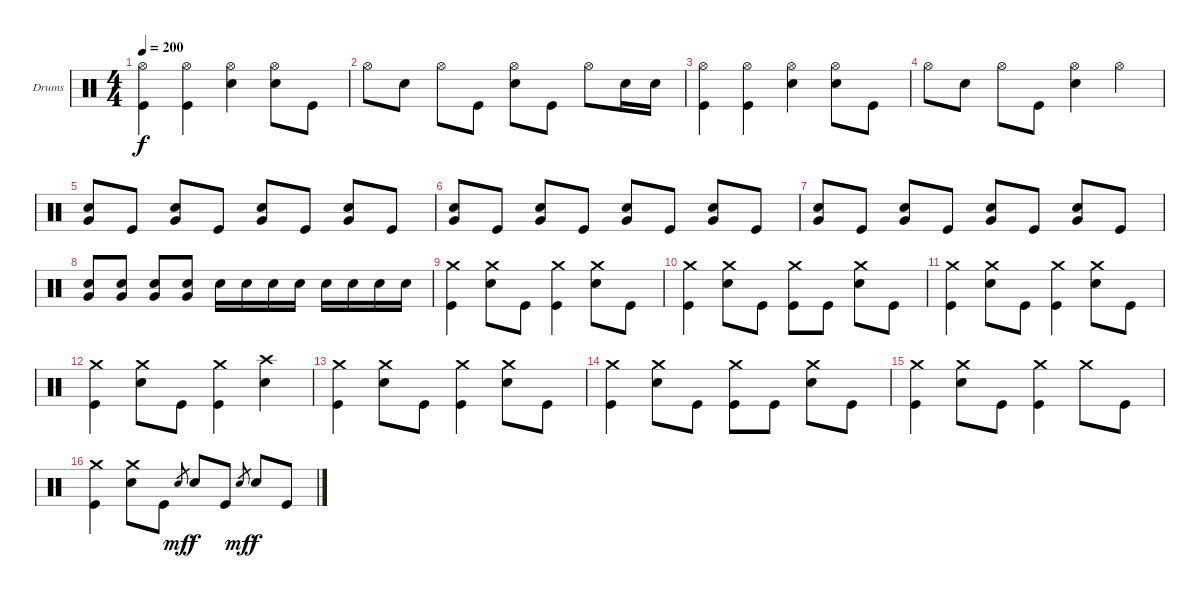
\bracketExtendMode groupsimilarinstruments
\firstSystemTrackNameOrientation horizontal
\otherSystemsTrackNameOrientation horizontal
\track ("Drumkit" "Drums") {instrument percussion}
\staff {score}
\articulation defaults
\ts (4 4)
\tempo 200
\clef neutral
\ks c
("Hi-Hat (open)" "Kick (hit)").4{dy f} ("Hi-Hat (open)" "Kick (hit)").4 ("Hi-Hat (open)" "Snare (hit) 2").4 ("Hi-Hat (open)" "Snare (hit) 2").8 "Kick (hit)".8 |
"Hi-Hat (open)".8 "Snare (hit) 2".8 "Hi-Hat (open)".8 "Kick (hit)".8 ("Hi-Hat (open)" "Snare (hit) 2").8 "Kick (hit)".8 "Hi-Hat (open)".8 "Snare (hit) 2".16 "Snare (hit) 2".16 |
("Hi-Hat (open)" "Kick (hit)").4 ("Hi-Hat (open)" "Kick (hit)").4 ("Hi-Hat (open)" "Snare (hit) 2").4 ("Hi-Hat (open)" "Snare (hit) 2").8 "Kick (hit)".8 |
"Hi-Hat (open)".8 "Snare (hit) 2".8 "Hi-Hat (open)".8 "Kick (hit)".8 ("Hi-Hat (open)" "Snare (hit) 2").4 "Hi-Hat (open)".4 |
("Snare (hit) 2" "Very Low Tom (hit)").8 "Kick (hit)".8 ("Snare (hit) 2" "Very Low Tom (hit)").8 "Kick (hit)".8 ("Snare (hit) 2" "Very Low Tom (hit)").8 "Kick (hit)".8 ("Snare (hit) 2" "Very Low Tom (hit)").8 "Kick (hit)".8 |
("Snare (hit) 2" "Very Low Tom (hit)").8 "Kick (hit)".8 ("Snare (hit) 2" "Very Low Tom (hit)").8 "Kick (hit)".8 ("Snare (hit) 2" "Very Low Tom (hit)").8 "Kick (hit)".8 ("Snare (hit) 2" "Very Low Tom (hit)").8 "Kick (hit)".8 |
("Snare (hit) 2" "Very Low Tom (hit)").8 "Kick (hit)".8 ("Snare (hit) 2" "Very Low Tom (hit)").8 "Kick (hit)".8 ("Snare (hit) 2" "Very Low Tom (hit)").8 "Kick (hit)".8 ("Snare (hit) 2" "Very Low Tom (hit)").8 "Kick (hit)".8 |
("Snare (hit) 2" "Very Low Tom (hit)").8 ("Snare (hit) 2" "Very Low Tom (hit)").8 ("Snare (hit) 2" "Very Low Tom (hit)").8 ("Snare (hit) 2" "Very Low Tom (hit)").8 "Snare (hit) 2".16 "Snare (hit) 2".16 "Snare (hit) 2".16 "Snare (hit) 2".16 "Snare (hit) 2".16 "Snare (hit) 2".16 "Snare (hit) 2".16 "Snare (hit) 2".16 |
("Crash medium (hit)" "Kick (hit)").4 ("Snare (hit) 2" "Crash medium (hit)").8 "Kick (hit)".8 ("Kick (hit)" "Crash medium (hit)").4 ("Snare (hit) 2" "Crash medium (hit)").8 "Kick (hit)".8 |
("Kick (hit)" "Crash medium (hit)").4 ("Snare (hit) 2" "Crash medium (hit)").8 "Kick (hit)".8 ("Kick (hit)" "Crash medium (hit)").8 "Kick (hit)".8 ("Snare (hit) 2" "Crash medium (hit)").8 "Kick (hit)".8 |
("Crash medium (hit)" "Kick (hit)").4 ("Snare (hit) 2" "Crash medium (hit)").8 "Kick (hit)".8 ("Kick (hit)" "Crash medium (hit)").4 ("Snare (hit) 2" "Crash medium (hit)").8 "Kick (hit)".8 |
("Kick (hit)" "Crash medium (hit)").4 ("Snare (hit) 2" "Crash medium (hit)").8 "Kick (hit)".8 ("Kick (hit)" "Crash medium (hit)").4 ("Crash high (hit)" "Snare (hit) 2").4 |
("Crash medium (hit)" "Kick (hit)").4 ("Snare (hit) 2" "Crash medium (hit)").8 "Kick (hit)".8 ("Kick (hit)" "Crash medium (hit)").4 ("Snare (hit) 2" "Crash medium (hit)").8 "Kick (hit)".8 |
("Kick (hit)" "Crash medium (hit)").4 ("Snare (hit) 2" "Crash medium (hit)").8 "Kick (hit)".8 ("Kick (hit)" "Crash medium (hit)").8 "Kick (hit)".8 ("Snare (hit) 2" "Crash medium (hit)").8 "Kick (hit)".8 |
("Crash medium (hit)" "Kick (hit)").4 ("Snare (hit) 2" "Crash medium (hit)").8 "Kick (hit)".8 ("Kick (hit)" "Crash medium (hit)").4 "Crash medium (hit)".8 "Kick (hit)".8 |
("Kick (hit)" "Crash medium (hit)").4 ("Snare (hit) 2" "Crash medium (hit)").8 "Kick (hit)".8 "Snare (hit) 2".8{gr dy mf} "Snare (hit) 2".8{dy f} "Kick (hit)".8 "Snare (hit) 2".8{gr dy mf} "Snare (hit) 2".8{dy f} "Kick (hit)".8
